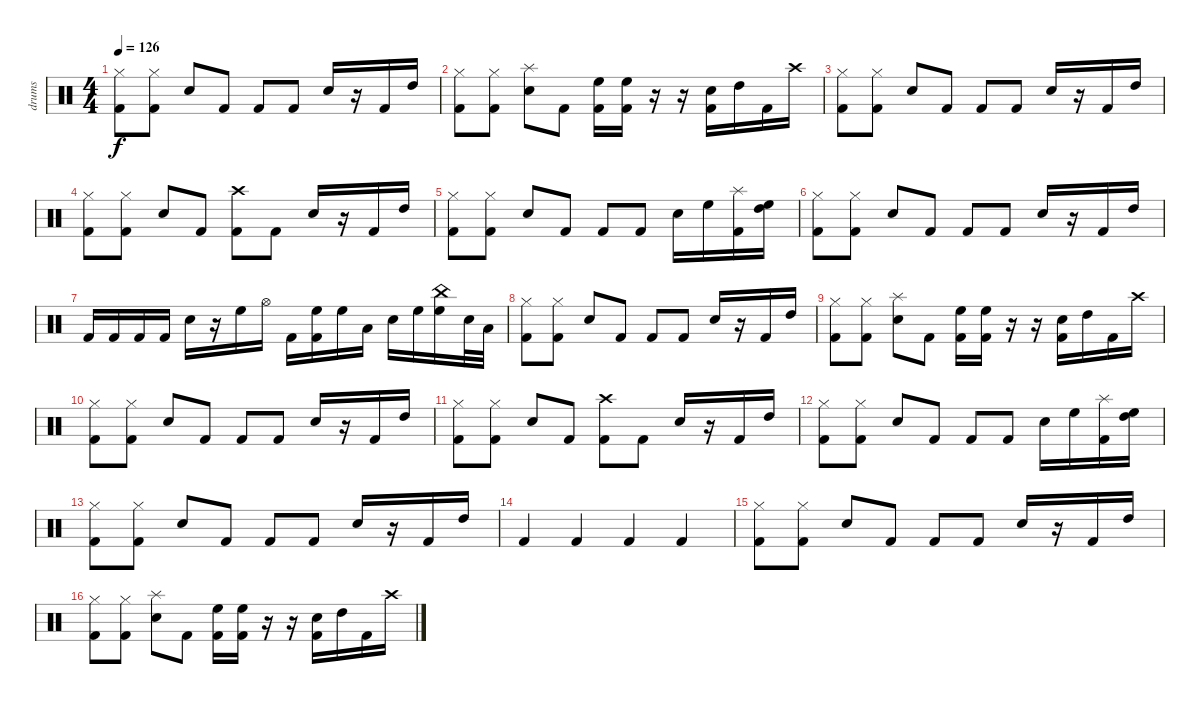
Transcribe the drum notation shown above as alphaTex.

\track ("drums" "drums") {instrument percussion}
\staff {score}
\articulation defaults
\ts (4 4)
\tempo 126
\clef neutral
\ks c
("Hi-Hat (closed)" "Kick (hit) 2").8{dy f} ("Hi-Hat (closed)" "Kick (hit) 2").8 "Snare (hit) 2".8 "Kick (hit) 2".8 "Kick (hit) 2".8 "Kick (hit) 2".8 "Snare (hit) 2".16 r.16 "Kick (hit) 2".16 "High Tom (hit)".16 |
("Hi-Hat (closed)" "Kick (hit) 2").8 ("Hi-Hat (closed)" "Kick (hit) 2").8 ("Splash (hit)" "Snare (hit) 2").8 "Kick (hit) 2".8 ("High Floor Tom (hit)" "Kick (hit) 2").16 ("High Floor Tom (hit)" "Kick (hit) 2").16 r.16 r.16 ("Snare (hit) 2" "Kick (hit) 2").16 "High Tom (hit)".16 "Kick (hit) 2".16 "Crash high (hit)".16 |
("Hi-Hat (closed)" "Kick (hit) 2").8 ("Hi-Hat (closed)" "Kick (hit) 2").8 "Snare (hit) 2".8 "Kick (hit) 2".8 "Kick (hit) 2".8 "Kick (hit) 2".8 "Snare (hit) 2".16 r.16 "Kick (hit) 2".16 "High Tom (hit)".16 |
("Hi-Hat (closed)" "Kick (hit) 2").8 ("Hi-Hat (closed)" "Kick (hit) 2").8 "Snare (hit) 2".8 "Kick (hit) 2".8 ("Crash high (hit)" "Kick (hit) 2").8 "Kick (hit) 2".8 "Snare (hit) 2".16 r.16 "Kick (hit) 2".16 "High Tom (hit)".16 |
("Hi-Hat (closed)" "Kick (hit) 2").8 ("Hi-Hat (closed)" "Kick (hit) 2").8 "Snare (hit) 2".8 "Kick (hit) 2".8 "Kick (hit) 2".8 "Kick (hit) 2".8 "Snare (hit) 2".16 "High Floor Tom (hit)".16 ("Splash (hit)" "Kick (hit) 2").16 ("High Floor Tom (hit)" "High Tom (hit)").16 |
("Hi-Hat (closed)" "Kick (hit) 2").8 ("Hi-Hat (closed)" "Kick (hit) 2").8 "Snare (hit) 2".8 "Kick (hit) 2".8 "Kick (hit) 2".8 "Kick (hit) 2".8 "Snare (hit) 2".16 r.16 "Kick (hit) 2".16 "High Tom (hit)".16 |
"Kick (hit) 2".16 "Kick (hit) 2".16 "Kick (hit) 2".16 "Kick (hit) 2".16 "Snare (hit) 2".16 r.16 "High Floor Tom (hit)".16 "Hi-Hat (open)".16 "Kick (hit) 2".16 ("High Floor Tom (hit)" "Kick (hit) 2").16 "High Floor Tom (hit)".16 "Low Tom (hit)".16 "Snare (hit) 2".16 "High Floor Tom (hit)".16 ("High Floor Tom (hit)" "China (hit)").16 "Snare (hit) 2".32 "Low Floor Tom (hit)".32 |
("Hi-Hat (closed)" "Kick (hit) 2").8 ("Hi-Hat (closed)" "Kick (hit) 2").8 "Snare (hit) 2".8 "Kick (hit) 2".8 "Kick (hit) 2".8 "Kick (hit) 2".8 "Snare (hit) 2".16 r.16 "Kick (hit) 2".16 "High Tom (hit)".16 |
("Hi-Hat (closed)" "Kick (hit) 2").8 ("Hi-Hat (closed)" "Kick (hit) 2").8 ("Splash (hit)" "Snare (hit) 2").8 "Kick (hit) 2".8 ("High Floor Tom (hit)" "Kick (hit) 2").16 ("High Floor Tom (hit)" "Kick (hit) 2").16 r.16 r.16 ("Snare (hit) 2" "Kick (hit) 2").16 "High Tom (hit)".16 "Kick (hit) 2".16 "Crash high (hit)".16 |
("Hi-Hat (closed)" "Kick (hit) 2").8 ("Hi-Hat (closed)" "Kick (hit) 2").8 "Snare (hit) 2".8 "Kick (hit) 2".8 "Kick (hit) 2".8 "Kick (hit) 2".8 "Snare (hit) 2".16 r.16 "Kick (hit) 2".16 "High Tom (hit)".16 |
("Hi-Hat (closed)" "Kick (hit) 2").8 ("Hi-Hat (closed)" "Kick (hit) 2").8 "Snare (hit) 2".8 "Kick (hit) 2".8 ("Crash high (hit)" "Kick (hit) 2").8 "Kick (hit) 2".8 "Snare (hit) 2".16 r.16 "Kick (hit) 2".16 "High Tom (hit)".16 |
("Hi-Hat (closed)" "Kick (hit) 2").8 ("Hi-Hat (closed)" "Kick (hit) 2").8 "Snare (hit) 2".8 "Kick (hit) 2".8 "Kick (hit) 2".8 "Kick (hit) 2".8 "Snare (hit) 2".16 "High Floor Tom (hit)".16 ("Splash (hit)" "Kick (hit) 2").16 ("High Floor Tom (hit)" "High Tom (hit)").16 |
("Hi-Hat (closed)" "Kick (hit) 2").8 ("Hi-Hat (closed)" "Kick (hit) 2").8 "Snare (hit) 2".8 "Kick (hit) 2".8 "Kick (hit) 2".8 "Kick (hit) 2".8 "Snare (hit) 2".16 r.16 "Kick (hit) 2".16 "High Tom (hit)".16 |
"Kick (hit) 2".4 "Kick (hit) 2".4 "Kick (hit) 2".4 "Kick (hit) 2".4 |
("Hi-Hat (closed)" "Kick (hit) 2").8 ("Hi-Hat (closed)" "Kick (hit) 2").8 "Snare (hit) 2".8 "Kick (hit) 2".8 "Kick (hit) 2".8 "Kick (hit) 2".8 "Snare (hit) 2".16 r.16 "Kick (hit) 2".16 "High Tom (hit)".16 |
("Hi-Hat (closed)" "Kick (hit) 2").8 ("Hi-Hat (closed)" "Kick (hit) 2").8 ("Splash (hit)" "Snare (hit) 2").8 "Kick (hit) 2".8 ("High Floor Tom (hit)" "Kick (hit) 2").16 ("High Floor Tom (hit)" "Kick (hit) 2").16 r.16 r.16 ("Snare (hit) 2" "Kick (hit) 2").16 "High Tom (hit)".16 "Kick (hit) 2".16 "Crash high (hit)".16
